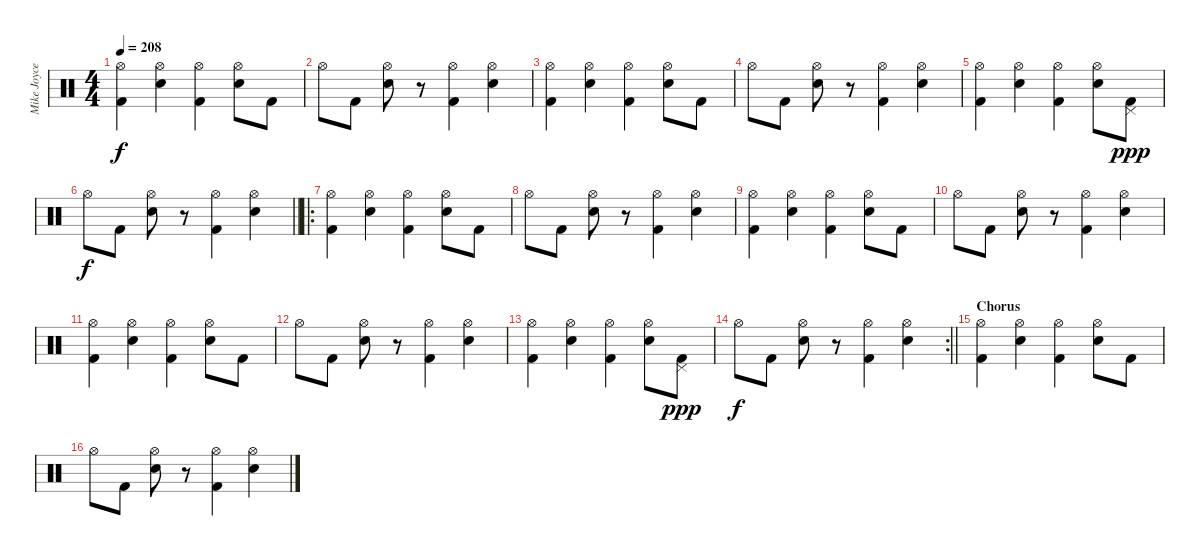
\track ("Mike Joyce" "Mike Joyce") {instrument percussion}
\staff {score}
\articulation defaults
\ts (4 4)
\tempo 208
\clef neutral
\ks c
("Hi-Hat (open)" "Kick (hit) 2").4{dy f} ("Hi-Hat (open)" "Snare (hit) 2").4 ("Hi-Hat (open)" "Kick (hit) 2").4 ("Hi-Hat (open)" "Snare (hit) 2").8 "Kick (hit) 2".8 |
"Hi-Hat (open)".8 "Kick (hit) 2".8 ("Hi-Hat (open)" "Snare (hit) 2").8 r.8 ("Hi-Hat (open)" "Kick (hit) 2").4 ("Hi-Hat (open)" "Snare (hit) 2").4 |
("Hi-Hat (open)" "Kick (hit) 2").4 ("Hi-Hat (open)" "Snare (hit) 2").4 ("Hi-Hat (open)" "Kick (hit) 2").4 ("Hi-Hat (open)" "Snare (hit) 2").8 "Kick (hit) 2".8 |
"Hi-Hat (open)".8 "Kick (hit) 2".8 ("Hi-Hat (open)" "Snare (hit) 2").8 r.8 ("Hi-Hat (open)" "Kick (hit) 2").4 ("Hi-Hat (open)" "Snare (hit) 2").4 |
("Hi-Hat (open)" "Kick (hit) 2").4 ("Hi-Hat (open)" "Snare (hit) 2").4 ("Hi-Hat (open)" "Kick (hit) 2").4 ("Hi-Hat (open)" "Snare (hit) 2").8 ("Pedal Hi-Hat (hit)" "Kick (hit) 2").8{dy ppp} |
\barLineRight lightlight "Hi-Hat (open)".8{dy f} "Kick (hit) 2".8
("Hi-Hat (open)" "Snare (hit) 2").8 r.8 ("Hi-Hat (open)" "Kick (hit) 2").4 ("Hi-Hat (open)" "Snare (hit) 2").4 |
\ro
("Hi-Hat (open)" "Kick (hit) 2").4 ("Hi-Hat (open)" "Snare (hit) 2").4 ("Hi-Hat (open)" "Kick (hit) 2").4 ("Hi-Hat (open)" "Snare (hit) 2").8 "Kick (hit) 2".8 |
"Hi-Hat (open)".8 "Kick (hit) 2".8 ("Hi-Hat (open)" "Snare (hit) 2").8 r.8 ("Hi-Hat (open)" "Kick (hit) 2").4 ("Hi-Hat (open)" "Snare (hit) 2").4 |
("Hi-Hat (open)" "Kick (hit) 2").4 ("Hi-Hat (open)" "Snare (hit) 2").4 ("Hi-Hat (open)" "Kick (hit) 2").4 ("Hi-Hat (open)" "Snare (hit) 2").8 "Kick (hit) 2".8 |
"Hi-Hat (open)".8 "Kick (hit) 2".8 ("Hi-Hat (open)" "Snare (hit) 2").8 r.8 ("Hi-Hat (open)" "Kick (hit) 2").4 ("Hi-Hat (open)" "Snare (hit) 2").4 |
("Hi-Hat (open)" "Kick (hit) 2").4 ("Hi-Hat (open)" "Snare (hit) 2").4 ("Hi-Hat (open)" "Kick (hit) 2").4 ("Hi-Hat (open)" "Snare (hit) 2").8 "Kick (hit) 2".8 |
"Hi-Hat (open)".8 "Kick (hit) 2".8 ("Hi-Hat (open)" "Snare (hit) 2").8 r.8 ("Hi-Hat (open)" "Kick (hit) 2").4 ("Hi-Hat (open)" "Snare (hit) 2").4 |
("Hi-Hat (open)" "Kick (hit) 2").4 ("Hi-Hat (open)" "Snare (hit) 2").4 ("Hi-Hat (open)" "Kick (hit) 2").4 ("Hi-Hat (open)" "Snare (hit) 2").8 ("Pedal Hi-Hat (hit)" "Kick (hit) 2").8{dy ppp} |
\rc 2
\barLineRight lightlight "Hi-Hat (open)".8{dy f} "Kick (hit) 2".8
("Hi-Hat (open)" "Snare (hit) 2").8 r.8 ("Hi-Hat (open)" "Kick (hit) 2").4 ("Hi-Hat (open)" "Snare (hit) 2").4 |
\section ("" "Chorus")
("Hi-Hat (open)" "Kick (hit) 2").4 ("Hi-Hat (open)" "Snare (hit) 2").4 ("Hi-Hat (open)" "Kick (hit) 2").4 ("Hi-Hat (open)" "Snare (hit) 2").8 "Kick (hit) 2".8 |
"Hi-Hat (open)".8 "Kick (hit) 2".8 ("Hi-Hat (open)" "Snare (hit) 2").8 r.8 ("Hi-Hat (open)" "Kick (hit) 2").4 ("Hi-Hat (open)" "Snare (hit) 2").4
